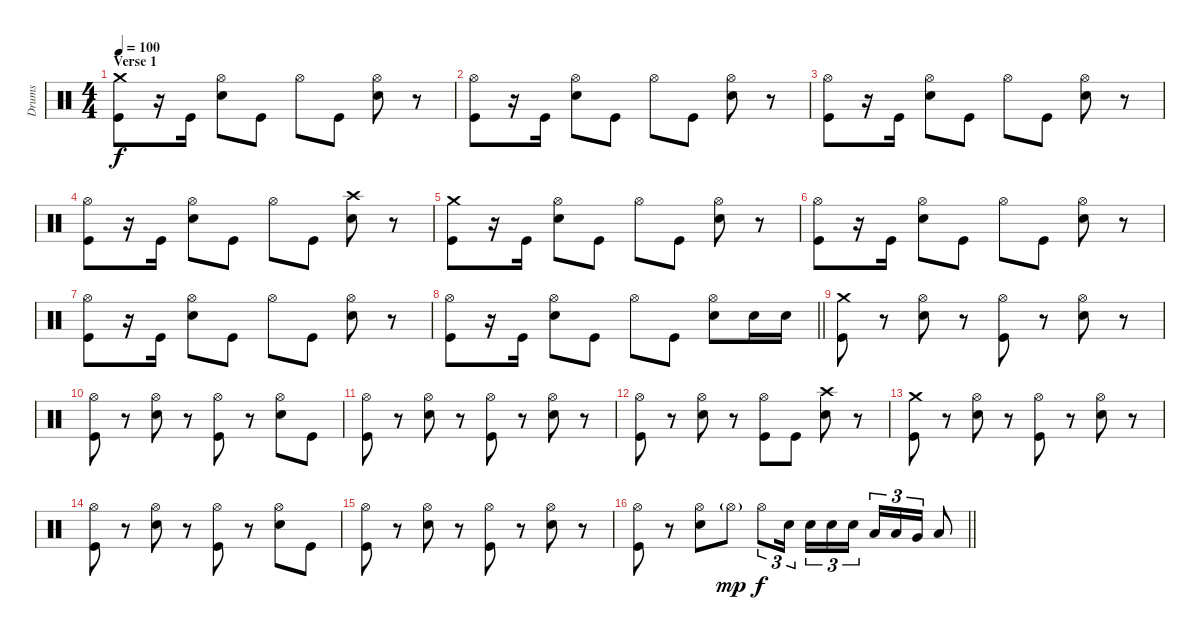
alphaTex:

\track ("Drums" "Drums") {instrument percussion}
\staff {score}
\articulation defaults
\ts (4 4)
\section ("" "Verse 1")
\tempo 100
\clef neutral
\ks c
("Crash medium (hit)" "Kick (hit)").8{dy f} r.16 "Kick (hit)".16 ("Hi-Hat (open)" "Electric Snare (hit)").8 "Kick (hit)".8 "Hi-Hat (open)".8 "Kick (hit)".8 ("Hi-Hat (open)" "Electric Snare (hit)").8 r.8 |
("Hi-Hat (open)" "Kick (hit)").8 r.16 "Kick (hit)".16 ("Hi-Hat (open)" "Electric Snare (hit)").8 "Kick (hit)".8 "Hi-Hat (open)".8 "Kick (hit)".8 ("Hi-Hat (open)" "Electric Snare (hit)").8 r.8 |
("Hi-Hat (open)" "Kick (hit)").8 r.16 "Kick (hit)".16 ("Hi-Hat (open)" "Electric Snare (hit)").8 "Kick (hit)".8 "Hi-Hat (open)".8 "Kick (hit)".8 ("Hi-Hat (open)" "Electric Snare (hit)").8 r.8 |
("Hi-Hat (open)" "Kick (hit)").8 r.16 "Kick (hit)".16 ("Hi-Hat (open)" "Electric Snare (hit)").8 "Kick (hit)".8 "Hi-Hat (open)".8 "Kick (hit)".8 ("Crash high (hit)" "Electric Snare (hit)").8 r.8 |
("Crash medium (hit)" "Kick (hit)").8 r.16 "Kick (hit)".16 ("Hi-Hat (open)" "Electric Snare (hit)").8 "Kick (hit)".8 "Hi-Hat (open)".8 "Kick (hit)".8 ("Hi-Hat (open)" "Electric Snare (hit)").8 r.8 |
("Hi-Hat (open)" "Kick (hit)").8 r.16 "Kick (hit)".16 ("Hi-Hat (open)" "Electric Snare (hit)").8 "Kick (hit)".8 "Hi-Hat (open)".8 "Kick (hit)".8 ("Hi-Hat (open)" "Electric Snare (hit)").8 r.8 |
("Hi-Hat (open)" "Kick (hit)").8 r.16 "Kick (hit)".16 ("Hi-Hat (open)" "Electric Snare (hit)").8 "Kick (hit)".8 "Hi-Hat (open)".8 "Kick (hit)".8 ("Hi-Hat (open)" "Electric Snare (hit)").8 r.8 |
\barLineRight lightlight
("Hi-Hat (open)" "Kick (hit)").8 r.16 "Kick (hit)".16 ("Hi-Hat (open)" "Electric Snare (hit)").8 "Kick (hit)".8 "Hi-Hat (open)".8 "Kick (hit)".8 ("Hi-Hat (open)" "Electric Snare (hit)").8 "Electric Snare (hit)".16 "Electric Snare (hit)".16 |
("Crash medium (hit)" "Kick (hit)").8 r.8 ("Hi-Hat (open)" "Electric Snare (hit)").8 r.8 ("Hi-Hat (open)" "Kick (hit)").8 r.8 ("Hi-Hat (open)" "Electric Snare (hit)").8 r.8 |
("Hi-Hat (open)" "Kick (hit)").8 r.8 ("Hi-Hat (open)" "Electric Snare (hit)").8 r.8 ("Hi-Hat (open)" "Kick (hit)").8 r.8 ("Hi-Hat (open)" "Electric Snare (hit)").8 "Kick (hit)".8 |
("Hi-Hat (open)" "Kick (hit)").8 r.8 ("Hi-Hat (open)" "Electric Snare (hit)").8 r.8 ("Hi-Hat (open)" "Kick (hit)").8 r.8 ("Hi-Hat (open)" "Electric Snare (hit)").8 r.8 |
("Hi-Hat (open)" "Kick (hit)").8 r.8 ("Hi-Hat (open)" "Electric Snare (hit)").8 r.8 ("Hi-Hat (open)" "Kick (hit)").8 "Kick (hit)".8 ("Crash high (hit)" "Electric Snare (hit)").8 r.8 |
("Crash medium (hit)" "Kick (hit)").8 r.8 ("Hi-Hat (open)" "Electric Snare (hit)").8 r.8 ("Hi-Hat (open)" "Kick (hit)").8 r.8 ("Hi-Hat (open)" "Electric Snare (hit)").8 r.8 |
("Hi-Hat (open)" "Kick (hit)").8 r.8 ("Hi-Hat (open)" "Electric Snare (hit)").8 r.8 ("Hi-Hat (open)" "Kick (hit)").8 r.8 ("Hi-Hat (open)" "Electric Snare (hit)").8 "Kick (hit)".8 |
("Hi-Hat (open)" "Kick (hit)").8 r.8 ("Hi-Hat (open)" "Electric Snare (hit)").8 r.8 ("Hi-Hat (open)" "Kick (hit)").8 r.8 ("Hi-Hat (open)" "Electric Snare (hit)").8 r.8 |
\barLineRight lightlight
("Hi-Hat (open)" "Kick (hit)").8 r.8 ("Hi-Hat (open)" "Electric Snare (hit)").8 "Hi-Hat (open)"{g}.8{dy mp} "Hi-Hat (open)".8{tu (3 2) dy f} "Electric Snare (hit)".16{tu (3 2) beam splitsecondary} "Electric Snare (hit)".16{tu (3 2)} "Electric Snare (hit)".16{tu (3 2)} "Electric Snare (hit)".16{tu (3 2)} "Low Tom (hit)".16{tu (3 2)} "Low Tom (hit)".16{tu (3 2)} "Very Low Tom (hit)".16{tu (3 2)} "Low Floor Tom (hit)".8
